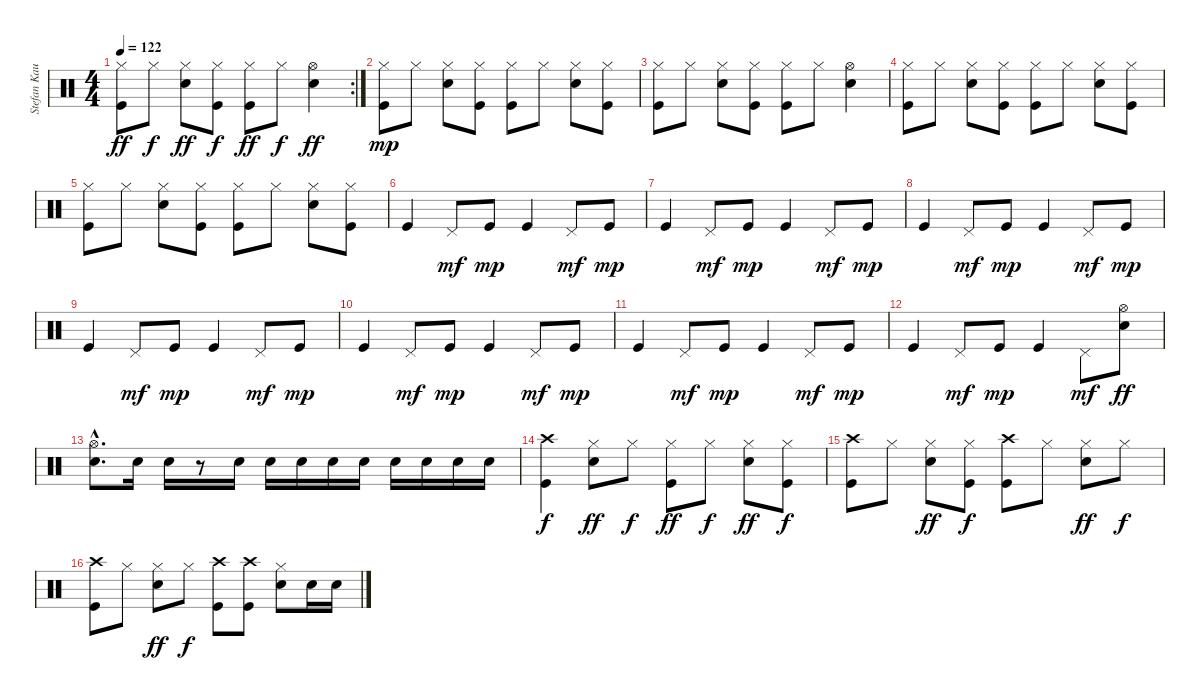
\track ("Stefan Kaufmann" "Stefan Kau") {instrument percussion}
\staff {score}
\articulation defaults
\rc 2
\ts (4 4)
\tempo 122
\clef neutral
\ks c
("Hi-Hat (closed)" "Kick (hit)").8{dy ff} "Hi-Hat (closed)".8{dy f} ("Hi-Hat (closed)" "Snare (hit) 2").8{dy ff} ("Hi-Hat (closed)" "Kick (hit)").8{dy f} ("Hi-Hat (closed)" "Kick (hit)").8{dy ff} "Hi-Hat (closed)".8{dy f} ("Hi-Hat (open)" "Snare (hit) 2").4{dy ff} |
("Hi-Hat (closed)" "Kick (hit)").8{dy mp} "Hi-Hat (closed)".8 ("Hi-Hat (closed)" "Snare (hit) 2").8 ("Hi-Hat (closed)" "Kick (hit)").8 ("Hi-Hat (closed)" "Kick (hit)").8 "Hi-Hat (closed)".8 ("Hi-Hat (closed)" "Snare (hit) 2").8 ("Hi-Hat (closed)" "Kick (hit)").8 |
("Hi-Hat (closed)" "Kick (hit)").8 "Hi-Hat (closed)".8 ("Hi-Hat (closed)" "Snare (hit) 2").8 ("Hi-Hat (closed)" "Kick (hit)").8 ("Hi-Hat (closed)" "Kick (hit)").8 "Hi-Hat (closed)".8 ("Hi-Hat (open)" "Snare (hit) 2").4 |
("Hi-Hat (closed)" "Kick (hit)").8 "Hi-Hat (closed)".8 ("Hi-Hat (closed)" "Snare (hit) 2").8 ("Hi-Hat (closed)" "Kick (hit)").8 ("Hi-Hat (closed)" "Kick (hit)").8 "Hi-Hat (closed)".8 ("Hi-Hat (closed)" "Snare (hit) 2").8 ("Hi-Hat (closed)" "Kick (hit)").8 |
("Hi-Hat (closed)" "Kick (hit)").8 "Hi-Hat (closed)".8 ("Hi-Hat (closed)" "Snare (hit) 2").8 ("Hi-Hat (closed)" "Kick (hit)").8 ("Hi-Hat (closed)" "Kick (hit)").8 "Hi-Hat (closed)".8 ("Hi-Hat (closed)" "Snare (hit) 2").8 ("Hi-Hat (closed)" "Kick (hit)").8 |
"Kick (hit)".4 "Pedal Hi-Hat (hit)".8{dy mf} "Kick (hit)".8{dy mp} "Kick (hit)".4 "Pedal Hi-Hat (hit)".8{dy mf} "Kick (hit)".8{dy mp} |
"Kick (hit)".4 "Pedal Hi-Hat (hit)".8{dy mf} "Kick (hit)".8{dy mp} "Kick (hit)".4 "Pedal Hi-Hat (hit)".8{dy mf} "Kick (hit)".8{dy mp} |
"Kick (hit)".4 "Pedal Hi-Hat (hit)".8{dy mf} "Kick (hit)".8{dy mp} "Kick (hit)".4 "Pedal Hi-Hat (hit)".8{dy mf} "Kick (hit)".8{dy mp} |
"Kick (hit)".4 "Pedal Hi-Hat (hit)".8{dy mf} "Kick (hit)".8{dy mp} "Kick (hit)".4 "Pedal Hi-Hat (hit)".8{dy mf} "Kick (hit)".8{dy mp} |
"Kick (hit)".4 "Pedal Hi-Hat (hit)".8{dy mf} "Kick (hit)".8{dy mp} "Kick (hit)".4 "Pedal Hi-Hat (hit)".8{dy mf} "Kick (hit)".8{dy mp} |
"Kick (hit)".4 "Pedal Hi-Hat (hit)".8{dy mf} "Kick (hit)".8{dy mp} "Kick (hit)".4 "Pedal Hi-Hat (hit)".8{dy mf} "Kick (hit)".8{dy mp} |
"Kick (hit)".4 "Pedal Hi-Hat (hit)".8{dy mf} "Kick (hit)".8{dy mp} "Kick (hit)".4 "Pedal Hi-Hat (hit)".8{dy mf} ("Hi-Hat (open)" "Snare (hit) 2").8{dy ff} |
("Hi-Hat (open)"{hac} "Snare (hit) 2"{hac}).8{d} "Snare (hit) 2".16 "Snare (hit) 2".16 r.8 "Snare (hit) 2".16 "Snare (hit) 2".16 "Snare (hit) 2".16 "Snare (hit) 2".16 "Snare (hit) 2".16 "Snare (hit) 2".16 "Snare (hit) 2".16 "Snare (hit) 2".16 "Snare (hit) 2".16 |
("Crash high (hit)" "Kick (hit)").4{dy f} ("Hi-Hat (closed)" "Snare (hit) 2").8{dy ff} "Hi-Hat (closed)".8{dy f} ("Hi-Hat (closed)" "Kick (hit)").8{dy ff} "Hi-Hat (closed)".8{dy f} ("Hi-Hat (closed)" "Snare (hit) 2").8{dy ff} ("Hi-Hat (closed)" "Kick (hit)").8{dy f} |
("Crash high (hit)" "Kick (hit)").8 "Hi-Hat (closed)".8 ("Hi-Hat (closed)" "Snare (hit) 2").8{dy ff} ("Hi-Hat (closed)" "Kick (hit)").8{dy f} ("Crash high (hit)" "Kick (hit)").8 "Hi-Hat (closed)".8 ("Hi-Hat (closed)" "Snare (hit) 2").8{dy ff} "Hi-Hat (closed)".8{dy f} |
("Crash high (hit)" "Kick (hit)").8 "Hi-Hat (closed)".8 ("Hi-Hat (closed)" "Snare (hit) 2").8{dy ff} "Hi-Hat (closed)".8{dy f} ("Crash high (hit)" "Kick (hit)").8 ("Crash high (hit)" "Kick (hit)").8 ("Hi-Hat (closed)" "Snare (hit) 2").8 "Snare (hit) 2".16 "Snare (hit) 2".16
